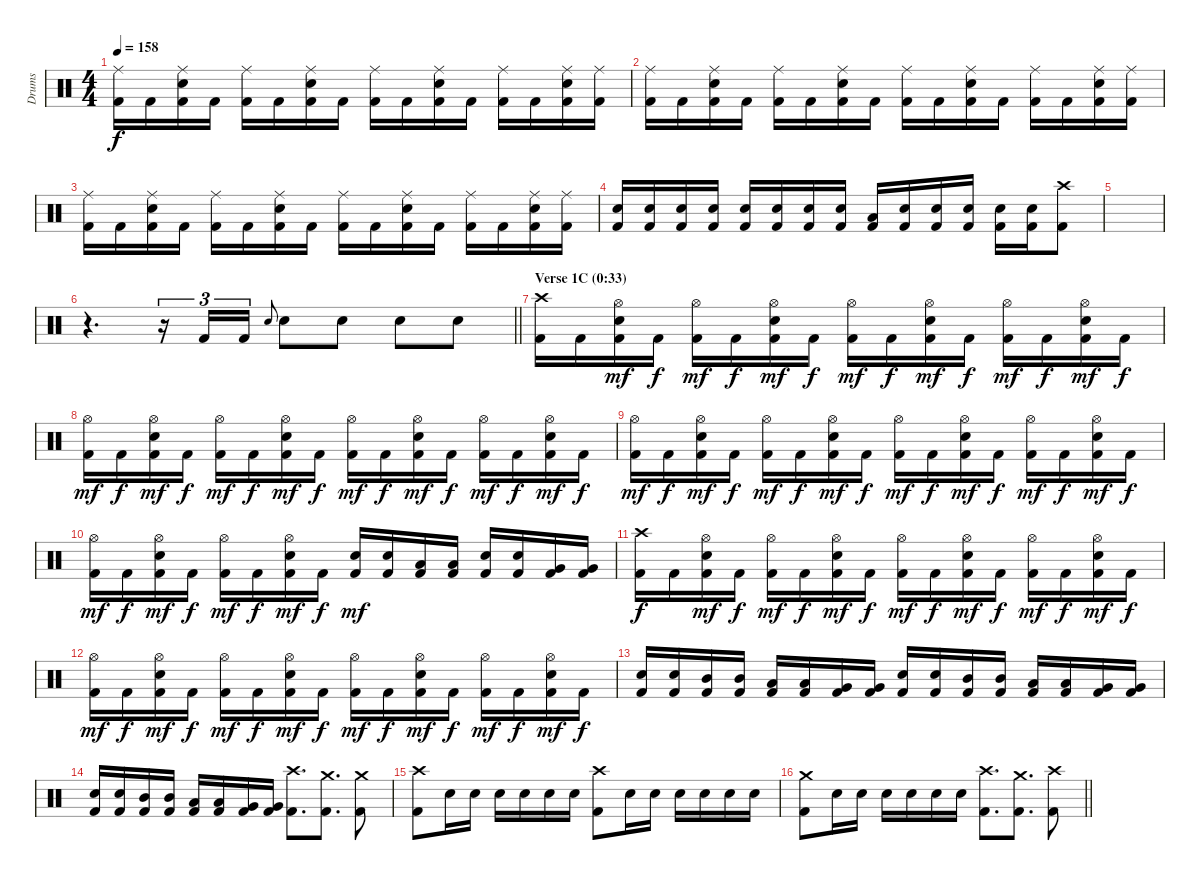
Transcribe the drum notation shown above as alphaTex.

\track ("Drums" "Drums") {instrument percussion}
\staff {score}
\articulation defaults
\ts (4 4)
\tempo 158
\clef neutral
\ks c
("Ride (middle)" "Kick (hit) 2").16{dy f} "Kick (hit) 2".16 ("Ride (middle)" "Electric Snare (hit)" "Kick (hit) 2").16 "Kick (hit) 2".16 ("Ride (middle)" "Kick (hit) 2").16 "Kick (hit) 2".16 ("Ride (middle)" "Electric Snare (hit)" "Kick (hit) 2").16 "Kick (hit) 2".16 ("Ride (middle)" "Kick (hit) 2").16 "Kick (hit) 2".16 ("Ride (middle)" "Electric Snare (hit)" "Kick (hit) 2").16 "Kick (hit) 2".16 ("Ride (middle)" "Kick (hit) 2").16 "Kick (hit) 2".16 ("Ride (middle)" "Electric Snare (hit)" "Kick (hit) 2").16 ("Ride (middle)" "Kick (hit) 2").16 |
("Ride (middle)" "Kick (hit) 2").16 "Kick (hit) 2".16 ("Ride (middle)" "Electric Snare (hit)" "Kick (hit) 2").16 "Kick (hit) 2".16 ("Ride (middle)" "Kick (hit) 2").16 "Kick (hit) 2".16 ("Ride (middle)" "Electric Snare (hit)" "Kick (hit) 2").16 "Kick (hit) 2".16 ("Ride (middle)" "Kick (hit) 2").16 "Kick (hit) 2".16 ("Ride (middle)" "Electric Snare (hit)" "Kick (hit) 2").16 "Kick (hit) 2".16 ("Ride (middle)" "Kick (hit) 2").16 "Kick (hit) 2".16 ("Ride (middle)" "Electric Snare (hit)" "Kick (hit) 2").16 ("Ride (middle)" "Kick (hit) 2").16 |
("Ride (middle)" "Kick (hit) 2").16 "Kick (hit) 2".16 ("Ride (middle)" "Electric Snare (hit)" "Kick (hit) 2").16 "Kick (hit) 2".16 ("Ride (middle)" "Kick (hit) 2").16 "Kick (hit) 2".16 ("Ride (middle)" "Electric Snare (hit)" "Kick (hit) 2").16 "Kick (hit) 2".16 ("Ride (middle)" "Kick (hit) 2").16 "Kick (hit) 2".16 ("Ride (middle)" "Electric Snare (hit)" "Kick (hit) 2").16 "Kick (hit) 2".16 ("Ride (middle)" "Kick (hit) 2").16 "Kick (hit) 2".16 ("Ride (middle)" "Electric Snare (hit)" "Kick (hit) 2").16 ("Ride (middle)" "Kick (hit) 2").16 |
("Electric Snare (hit)" "Kick (hit) 2").16 ("Electric Snare (hit)" "Kick (hit) 2").16 ("Electric Snare (hit)" "Kick (hit) 2").16 ("Electric Snare (hit)" "Kick (hit) 2").16 ("Electric Snare (hit)" "Kick (hit) 2").16 ("Electric Snare (hit)" "Kick (hit) 2").16 ("Electric Snare (hit)" "Kick (hit) 2").16 ("Electric Snare (hit)" "Kick (hit) 2").16 ("Low Tom (hit)" "Kick (hit) 2").16 ("Electric Snare (hit)" "Kick (hit) 2").16 ("Electric Snare (hit)" "Kick (hit) 2").16 ("Electric Snare (hit)" "Kick (hit) 2").16 ("Electric Snare (hit)" "Kick (hit) 2").16 ("Electric Snare (hit)" "Kick (hit) 2").16 ("Crash high (hit)" "Kick (hit) 2").8 |
|
\barLineRight lightlight
r.4{d} r.16{tu (3 2)} "Kick (hit) 2".16{tu (3 2)} "Kick (hit) 2".16{tu (3 2)} "Electric Snare (hit)".8{gr onbeat} "Electric Snare (hit)".8 "Electric Snare (hit)".8 "Electric Snare (hit)".8 "Electric Snare (hit)".8 |
\section ("" "Verse 1C (0:33)")
("Crash high (hit)" "Kick (hit) 2").16 "Kick (hit) 2".16 ("Hi-Hat (open)" "Electric Snare (hit)" "Kick (hit) 2").16{dy mf} "Kick (hit) 2".16{dy f} ("Hi-Hat (open)" "Kick (hit) 2").16{dy mf} "Kick (hit) 2".16{dy f} ("Hi-Hat (open)" "Electric Snare (hit)" "Kick (hit) 2").16{dy mf} "Kick (hit) 2".16{dy f} ("Hi-Hat (open)" "Kick (hit) 2").16{dy mf} "Kick (hit) 2".16{dy f} ("Hi-Hat (open)" "Electric Snare (hit)" "Kick (hit) 2").16{dy mf} "Kick (hit) 2".16{dy f} ("Hi-Hat (open)" "Kick (hit) 2").16{dy mf} "Kick (hit) 2".16{dy f} ("Hi-Hat (open)" "Electric Snare (hit)" "Kick (hit) 2").16{dy mf} "Kick (hit) 2".16{dy f} |
("Hi-Hat (open)" "Kick (hit) 2").16{dy mf} "Kick (hit) 2".16{dy f} ("Hi-Hat (open)" "Electric Snare (hit)" "Kick (hit) 2").16{dy mf} "Kick (hit) 2".16{dy f} ("Hi-Hat (open)" "Kick (hit) 2").16{dy mf} "Kick (hit) 2".16{dy f} ("Hi-Hat (open)" "Electric Snare (hit)" "Kick (hit) 2").16{dy mf} "Kick (hit) 2".16{dy f} ("Hi-Hat (open)" "Kick (hit) 2").16{dy mf} "Kick (hit) 2".16{dy f} ("Hi-Hat (open)" "Electric Snare (hit)" "Kick (hit) 2").16{dy mf} "Kick (hit) 2".16{dy f} ("Hi-Hat (open)" "Kick (hit) 2").16{dy mf} "Kick (hit) 2".16{dy f} ("Hi-Hat (open)" "Electric Snare (hit)" "Kick (hit) 2").16{dy mf} "Kick (hit) 2".16{dy f} |
("Hi-Hat (open)" "Kick (hit) 2").16{dy mf} "Kick (hit) 2".16{dy f} ("Hi-Hat (open)" "Electric Snare (hit)" "Kick (hit) 2").16{dy mf} "Kick (hit) 2".16{dy f} ("Hi-Hat (open)" "Kick (hit) 2").16{dy mf} "Kick (hit) 2".16{dy f} ("Hi-Hat (open)" "Electric Snare (hit)" "Kick (hit) 2").16{dy mf} "Kick (hit) 2".16{dy f} ("Hi-Hat (open)" "Kick (hit) 2").16{dy mf} "Kick (hit) 2".16{dy f} ("Hi-Hat (open)" "Electric Snare (hit)" "Kick (hit) 2").16{dy mf} "Kick (hit) 2".16{dy f} ("Hi-Hat (open)" "Kick (hit) 2").16{dy mf} "Kick (hit) 2".16{dy f} ("Hi-Hat (open)" "Electric Snare (hit)" "Kick (hit) 2").16{dy mf} "Kick (hit) 2".16{dy f} |
("Hi-Hat (open)" "Kick (hit) 2").16{dy mf} "Kick (hit) 2".16{dy f} ("Hi-Hat (open)" "Electric Snare (hit)" "Kick (hit) 2").16{dy mf} "Kick (hit) 2".16{dy f} ("Hi-Hat (open)" "Kick (hit) 2").16{dy mf} "Kick (hit) 2".16{dy f} ("Hi-Hat (open)" "Electric Snare (hit)" "Kick (hit) 2").16{dy mf} "Kick (hit) 2".16{dy f} ("Electric Snare (hit)" "Kick (hit) 2").16{dy mf} ("Electric Snare (hit)" "Kick (hit) 2").16 ("Low Tom (hit)" "Kick (hit) 2").16 ("Low Tom (hit)" "Kick (hit) 2").16 ("Electric Snare (hit)" "Kick (hit) 2").16 ("Electric Snare (hit)" "Kick (hit) 2").16 ("Very Low Tom (hit)" "Kick (hit) 2").16 ("Very Low Tom (hit)" "Kick (hit) 2").16 |
("Crash high (hit)" "Kick (hit) 2").16{dy f} "Kick (hit) 2".16 ("Hi-Hat (open)" "Electric Snare (hit)" "Kick (hit) 2").16{dy mf} "Kick (hit) 2".16{dy f} ("Hi-Hat (open)" "Kick (hit) 2").16{dy mf} "Kick (hit) 2".16{dy f} ("Hi-Hat (open)" "Electric Snare (hit)" "Kick (hit) 2").16{dy mf} "Kick (hit) 2".16{dy f} ("Hi-Hat (open)" "Kick (hit) 2").16{dy mf} "Kick (hit) 2".16{dy f} ("Hi-Hat (open)" "Electric Snare (hit)" "Kick (hit) 2").16{dy mf} "Kick (hit) 2".16{dy f} ("Hi-Hat (open)" "Kick (hit) 2").16{dy mf} "Kick (hit) 2".16{dy f} ("Hi-Hat (open)" "Electric Snare (hit)" "Kick (hit) 2").16{dy mf} "Kick (hit) 2".16{dy f} |
("Hi-Hat (open)" "Kick (hit) 2").16{dy mf} "Kick (hit) 2".16{dy f} ("Hi-Hat (open)" "Electric Snare (hit)" "Kick (hit) 2").16{dy mf} "Kick (hit) 2".16{dy f} ("Hi-Hat (open)" "Kick (hit) 2").16{dy mf} "Kick (hit) 2".16{dy f} ("Hi-Hat (open)" "Electric Snare (hit)" "Kick (hit) 2").16{dy mf} "Kick (hit) 2".16{dy f} ("Hi-Hat (open)" "Kick (hit) 2").16{dy mf} "Kick (hit) 2".16{dy f} ("Hi-Hat (open)" "Electric Snare (hit)" "Kick (hit) 2").16{dy mf} "Kick (hit) 2".16{dy f} ("Hi-Hat (open)" "Kick (hit) 2").16{dy mf} "Kick (hit) 2".16{dy f} ("Hi-Hat (open)" "Electric Snare (hit)" "Kick (hit) 2").16{dy mf} "Kick (hit) 2".16{dy f} |
("Electric Snare (hit)" "Kick (hit) 2").16 ("Electric Snare (hit)" "Kick (hit) 2").16 ("Mid Tom (hit)" "Kick (hit) 2").16 ("Mid Tom (hit)" "Kick (hit) 2").16 ("Low Tom (hit)" "Kick (hit) 2").16 ("Low Tom (hit)" "Kick (hit) 2").16 ("Very Low Tom (hit)" "Kick (hit) 2").16 ("Very Low Tom (hit)" "Kick (hit) 2").16 ("Electric Snare (hit)" "Kick (hit) 2").16 ("Electric Snare (hit)" "Kick (hit) 2").16 ("Mid Tom (hit)" "Kick (hit) 2").16 ("Mid Tom (hit)" "Kick (hit) 2").16 ("Low Tom (hit)" "Kick (hit) 2").16 ("Low Tom (hit)" "Kick (hit) 2").16 ("Very Low Tom (hit)" "Kick (hit) 2").16 ("Very Low Tom (hit)" "Kick (hit) 2").16 |
("Electric Snare (hit)" "Kick (hit) 2").16 ("Electric Snare (hit)" "Kick (hit) 2").16 ("Mid Tom (hit)" "Kick (hit) 2").16 ("Mid Tom (hit)" "Kick (hit) 2").16 ("Low Tom (hit)" "Kick (hit) 2").16 ("Low Tom (hit)" "Kick (hit) 2").16 ("Very Low Tom (hit)" "Kick (hit) 2").16 ("Very Low Tom (hit)" "Kick (hit) 2").16 ("Crash high (hit)" "Kick (hit) 2").8{d} ("Crash medium (hit)" "Kick (hit) 2").8{d} ("Crash medium (hit)" "Kick (hit) 2").8 |
("Crash high (hit)" "Kick (hit) 2").8 "Electric Snare (hit)".16 "Electric Snare (hit)".16 "Electric Snare (hit)".16 "Electric Snare (hit)".16 "Electric Snare (hit)".16 "Electric Snare (hit)".16 ("Crash high (hit)" "Kick (hit) 2").8 "Electric Snare (hit)".16 "Electric Snare (hit)".16 "Electric Snare (hit)".16 "Electric Snare (hit)".16 "Electric Snare (hit)".16 "Electric Snare (hit)".16 |
\barLineRight lightlight
("Crash medium (hit)" "Kick (hit) 2").8 "Electric Snare (hit)".16 "Electric Snare (hit)".16 "Electric Snare (hit)".16 "Electric Snare (hit)".16 "Electric Snare (hit)".16 "Electric Snare (hit)".16 ("Crash high (hit)" "Kick (hit) 2").8{d} ("Crash medium (hit)" "Kick (hit) 2").8{d} ("Crash high (hit)" "Kick (hit) 2").8
